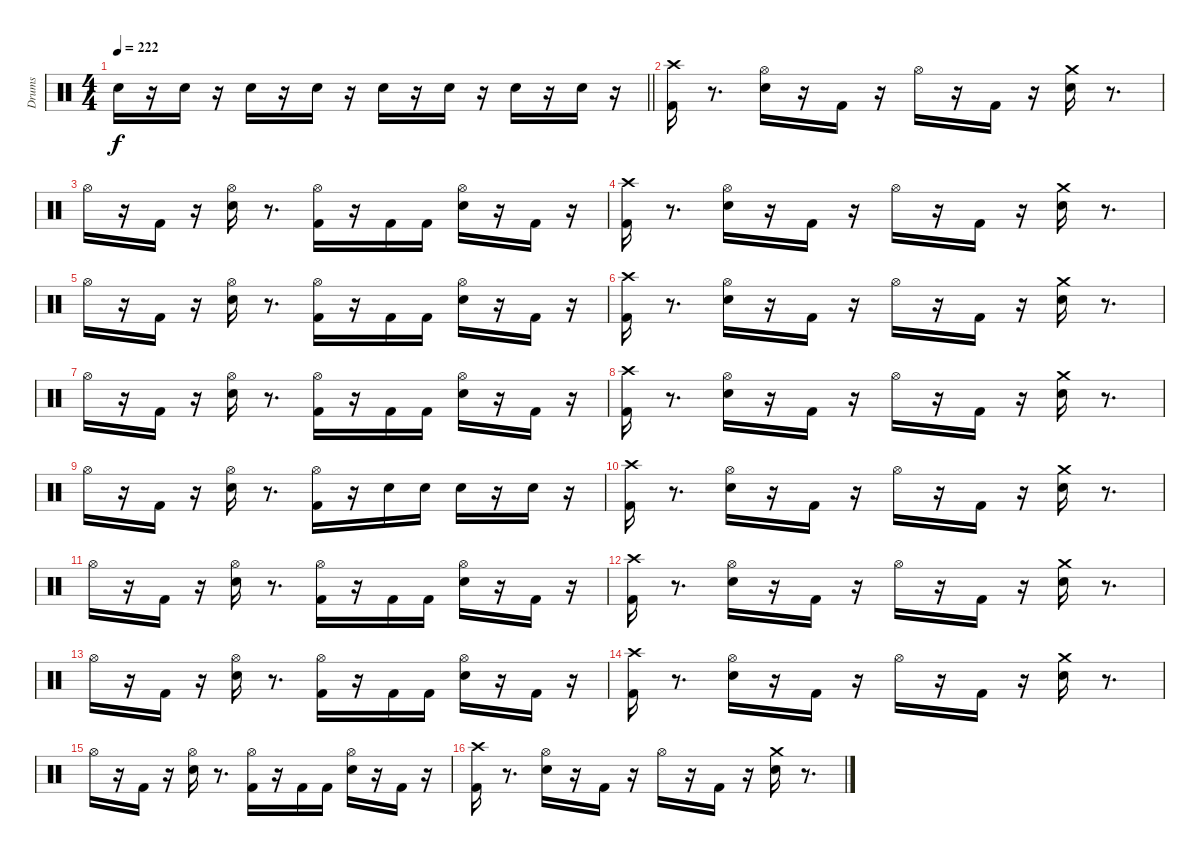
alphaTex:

\track ("Drums" "Drums") {instrument percussion}
\staff {score}
\articulation defaults
\ts (4 4)
\tempo 222
\clef neutral
\barLineRight lightlight
\ks c "Snare (hit) 2".16{dy f}
r.16 "Snare (hit) 2".16 r.16 "Snare (hit) 2".16 r.16 "Snare (hit) 2".16 r.16 "Snare (hit) 2".16 r.16 "Snare (hit) 2".16 r.16 "Snare (hit) 2".16 r.16 "Snare (hit) 2".16 r.16 |
\section ("" " ")
("Kick (hit) 2" "Crash high (hit)").16 r.8{d} ("Snare (hit) 2" "Hi-Hat (open)").16 r.16 "Kick (hit) 2".16 r.16 "Hi-Hat (open)".16 r.16 "Kick (hit) 2".16 r.16 ("Snare (hit) 2" "Crash medium (hit)").16 r.8{d} |
"Hi-Hat (open)".16 r.16 "Kick (hit) 2".16 r.16 ("Snare (hit) 2" "Hi-Hat (open)").16 r.8{d} ("Kick (hit) 2" "Hi-Hat (open)").16 r.16 "Kick (hit) 2".16 "Kick (hit) 2".16 ("Snare (hit) 2" "Hi-Hat (open)").16 r.16 "Kick (hit) 2".16 r.16 |
("Kick (hit) 2" "Crash high (hit)").16 r.8{d} ("Snare (hit) 2" "Hi-Hat (open)").16 r.16 "Kick (hit) 2".16 r.16 "Hi-Hat (open)".16 r.16 "Kick (hit) 2".16 r.16 ("Snare (hit) 2" "Crash medium (hit)").16 r.8{d} |
"Hi-Hat (open)".16 r.16 "Kick (hit) 2".16 r.16 ("Snare (hit) 2" "Hi-Hat (open)").16 r.8{d} ("Kick (hit) 2" "Hi-Hat (open)").16 r.16 "Kick (hit) 2".16 "Kick (hit) 2".16 ("Snare (hit) 2" "Hi-Hat (open)").16 r.16 "Kick (hit) 2".16 r.16 |
("Kick (hit) 2" "Crash high (hit)").16 r.8{d} ("Snare (hit) 2" "Hi-Hat (open)").16 r.16 "Kick (hit) 2".16 r.16 "Hi-Hat (open)".16 r.16 "Kick (hit) 2".16 r.16 ("Snare (hit) 2" "Crash medium (hit)").16 r.8{d} |
"Hi-Hat (open)".16 r.16 "Kick (hit) 2".16 r.16 ("Snare (hit) 2" "Hi-Hat (open)").16 r.8{d} ("Kick (hit) 2" "Hi-Hat (open)").16 r.16 "Kick (hit) 2".16 "Kick (hit) 2".16 ("Snare (hit) 2" "Hi-Hat (open)").16 r.16 "Kick (hit) 2".16 r.16 |
("Kick (hit) 2" "Crash high (hit)").16 r.8{d} ("Snare (hit) 2" "Hi-Hat (open)").16 r.16 "Kick (hit) 2".16 r.16 "Hi-Hat (open)".16 r.16 "Kick (hit) 2".16 r.16 ("Snare (hit) 2" "Crash medium (hit)").16 r.8{d} |
"Hi-Hat (open)".16 r.16 "Kick (hit) 2".16 r.16 ("Snare (hit) 2" "Hi-Hat (open)").16 r.8{d} ("Kick (hit) 2" "Hi-Hat (open)").16 r.16 "Snare (hit) 2".16 "Snare (hit) 2".16 "Snare (hit) 2".16 r.16 "Snare (hit) 2".16 r.16 |
("Kick (hit) 2" "Crash high (hit)").16 r.8{d} ("Snare (hit) 2" "Hi-Hat (open)").16 r.16 "Kick (hit) 2".16 r.16 "Hi-Hat (open)".16 r.16 "Kick (hit) 2".16 r.16 ("Snare (hit) 2" "Crash medium (hit)").16 r.8{d} |
"Hi-Hat (open)".16 r.16 "Kick (hit) 2".16 r.16 ("Snare (hit) 2" "Hi-Hat (open)").16 r.8{d} ("Kick (hit) 2" "Hi-Hat (open)").16 r.16 "Kick (hit) 2".16 "Kick (hit) 2".16 ("Snare (hit) 2" "Hi-Hat (open)").16 r.16 "Kick (hit) 2".16 r.16 |
("Kick (hit) 2" "Crash high (hit)").16 r.8{d} ("Snare (hit) 2" "Hi-Hat (open)").16 r.16 "Kick (hit) 2".16 r.16 "Hi-Hat (open)".16 r.16 "Kick (hit) 2".16 r.16 ("Snare (hit) 2" "Crash medium (hit)").16 r.8{d} |
"Hi-Hat (open)".16 r.16 "Kick (hit) 2".16 r.16 ("Snare (hit) 2" "Hi-Hat (open)").16 r.8{d} ("Kick (hit) 2" "Hi-Hat (open)").16 r.16 "Kick (hit) 2".16 "Kick (hit) 2".16 ("Snare (hit) 2" "Hi-Hat (open)").16 r.16 "Kick (hit) 2".16 r.16 |
("Kick (hit) 2" "Crash high (hit)").16 r.8{d} ("Snare (hit) 2" "Hi-Hat (open)").16 r.16 "Kick (hit) 2".16 r.16 "Hi-Hat (open)".16 r.16 "Kick (hit) 2".16 r.16 ("Snare (hit) 2" "Crash medium (hit)").16 r.8{d} |
"Hi-Hat (open)".16 r.16 "Kick (hit) 2".16 r.16 ("Snare (hit) 2" "Hi-Hat (open)").16 r.8{d} ("Kick (hit) 2" "Hi-Hat (open)").16 r.16 "Kick (hit) 2".16 "Kick (hit) 2".16 ("Snare (hit) 2" "Hi-Hat (open)").16 r.16 "Kick (hit) 2".16 r.16 |
("Kick (hit) 2" "Crash high (hit)").16 r.8{d} ("Snare (hit) 2" "Hi-Hat (open)").16 r.16 "Kick (hit) 2".16 r.16 "Hi-Hat (open)".16 r.16 "Kick (hit) 2".16 r.16 ("Snare (hit) 2" "Crash medium (hit)").16 r.8{d}
